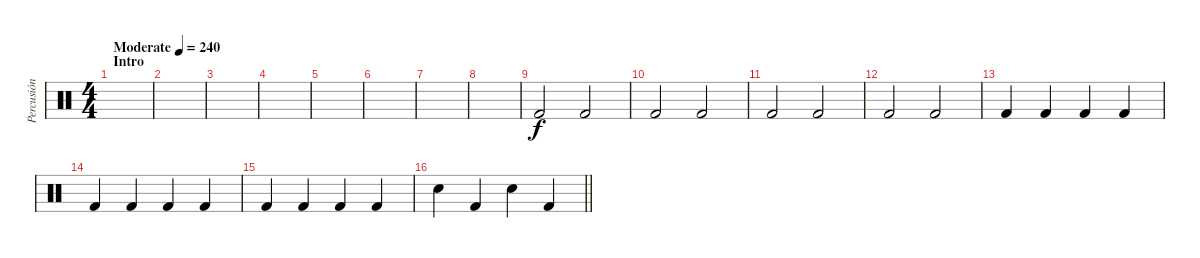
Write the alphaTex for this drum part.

\track ("Percusión" "Percusión") {instrument percussion}
\staff {score}
\articulation defaults
\ts (4 4)
\section ("" "Intro")
\tempo (240 "Moderate")
\clef neutral
\ks c
|
|
|
|
|
|
|
|
"Kick (hit) 2".2 "Kick (hit) 2".2 |
"Kick (hit) 2".2 "Kick (hit) 2".2 |
"Kick (hit) 2".2 "Kick (hit) 2".2 |
"Kick (hit) 2".2 "Kick (hit) 2".2 |
"Kick (hit) 2".4 "Kick (hit) 2".4 "Kick (hit) 2".4 "Kick (hit) 2".4 |
"Kick (hit) 2".4 "Kick (hit) 2".4 "Kick (hit) 2".4 "Kick (hit) 2".4 |
"Kick (hit) 2".4 "Kick (hit) 2".4 "Kick (hit) 2".4 "Kick (hit) 2".4 |
\barLineRight lightlight "Electric Snare (hit)".4 "Kick (hit) 2".4 "Electric Snare (hit)".4 "Kick (hit) 2".4
